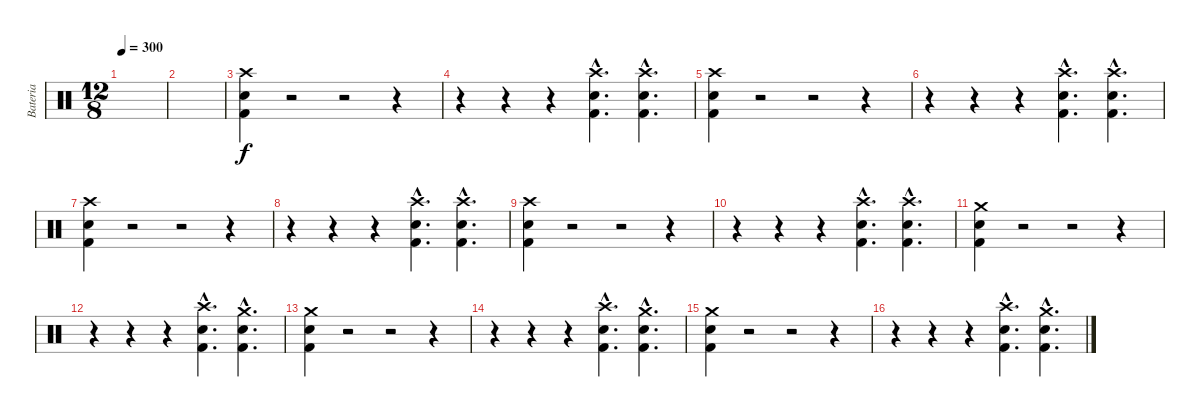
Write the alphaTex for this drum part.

\track ("Bateria" "Bateria") {instrument percussion}
\staff {score}
\articulation defaults
\ts (12 8)
\tempo 300
\clef neutral
\ks c
|
|
("Crash high (hit)" "Snare (hit) 2" "Kick (hit) 2").4 r.2 r.2 r.4 |
r.4 r.4 r.4 ("Crash high (hit)"{hac} "Snare (hit) 2"{hac} "Kick (hit) 2"{hac}).4{d} ("Crash high (hit)"{hac} "Snare (hit) 2"{hac} "Kick (hit) 2"{hac}).4{d} |
("Crash high (hit)" "Snare (hit) 2" "Kick (hit) 2").4 r.2 r.2 r.4 |
r.4 r.4 r.4 ("Crash high (hit)"{hac} "Snare (hit) 2"{hac} "Kick (hit) 2"{hac}).4{d} ("Crash high (hit)"{hac} "Snare (hit) 2"{hac} "Kick (hit) 2"{hac}).4{d} |
("Crash high (hit)" "Snare (hit) 2" "Kick (hit) 2").4 r.2 r.2 r.4 |
r.4 r.4 r.4 ("Crash high (hit)"{hac} "Snare (hit) 2"{hac} "Kick (hit) 2"{hac}).4{d} ("Crash high (hit)"{hac} "Snare (hit) 2"{hac} "Kick (hit) 2"{hac}).4{d} |
("Crash high (hit)" "Snare (hit) 2" "Kick (hit) 2").4 r.2 r.2 r.4 |
r.4 r.4 r.4 ("Crash high (hit)"{hac} "Snare (hit) 2"{hac} "Kick (hit) 2"{hac}).4{d} ("Crash high (hit)"{hac} "Snare (hit) 2"{hac} "Kick (hit) 2"{hac}).4{d} |
("Crash medium (hit)" "Snare (hit) 2" "Kick (hit) 2").4 r.2 r.2 r.4 |
r.4 r.4 r.4 ("Crash high (hit)"{hac} "Snare (hit) 2"{hac} "Kick (hit) 2"{hac}).4{d} ("Crash medium (hit)"{hac} "Snare (hit) 2"{hac} "Kick (hit) 2"{hac}).4{d} |
("Crash medium (hit)" "Snare (hit) 2" "Kick (hit) 2").4 r.2 r.2 r.4 |
r.4 r.4 r.4 ("Crash high (hit)"{hac} "Snare (hit) 2"{hac} "Kick (hit) 2"{hac}).4{d} ("Crash medium (hit)"{hac} "Snare (hit) 2"{hac} "Kick (hit) 2"{hac}).4{d} |
("Crash medium (hit)" "Snare (hit) 2" "Kick (hit) 2").4 r.2 r.2 r.4 |
r.4 r.4 r.4 ("Crash high (hit)"{hac} "Snare (hit) 2"{hac} "Kick (hit) 2"{hac}).4{d} ("Crash medium (hit)"{hac} "Snare (hit) 2"{hac} "Kick (hit) 2"{hac}).4{d}
